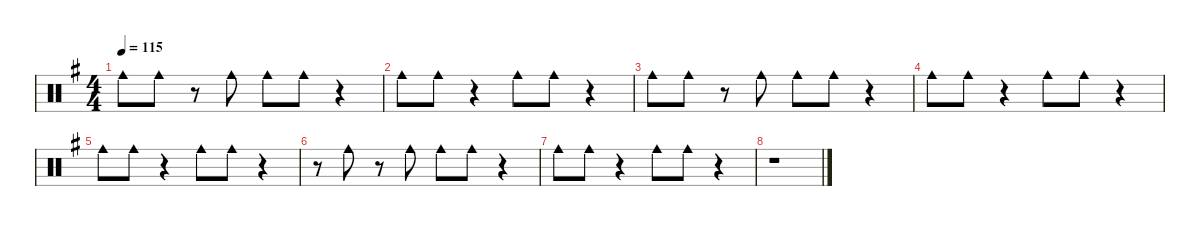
\defaultSystemsLayout 8
\hideDynamics
\bracketExtendMode nobrackets
\singleTrackTrackNamePolicy hidden
\multiTrackTrackNamePolicy hidden
\otherSystemsTrackNameOrientation horizontal
\track ("Cowbell" "drm.") {defaultSystemsLayout 8 instrument percussion}
\staff {score}
\articulation defaults
\ts (4 4)
\tempo 115
\clef neutral
\ks g "Cowbell medium (hit)"{acc forcenatural}.8{dy f beam Down} "Cowbell medium (hit)"{acc forcenatural}.8{beam Down}
r.8{beam Down} "Cowbell medium (hit)"{acc forcenatural}.8{beam Down} "Cowbell medium (hit)"{acc forcenatural}.8{beam Down} "Cowbell medium (hit)"{acc forcenatural}.8{beam Down} r.4{beam Down} |
"Cowbell medium (hit)"{acc forcenatural}.8{beam Down} "Cowbell medium (hit)"{acc forcenatural}.8{beam Down} r.4{beam Down} "Cowbell medium (hit)"{acc forcenatural}.8{beam Down} "Cowbell medium (hit)"{acc forcenatural}.8{beam Down} r.4{beam Down} |
"Cowbell medium (hit)"{acc forcenatural}.8{beam Down} "Cowbell medium (hit)"{acc forcenatural}.8{beam Down} r.8{beam Down} "Cowbell medium (hit)"{acc forcenatural}.8{beam Down} "Cowbell medium (hit)"{acc forcenatural}.8{beam Down} "Cowbell medium (hit)"{acc forcenatural}.8{beam Down} r.4{beam Down} |
"Cowbell medium (hit)"{acc forcenatural}.8{beam Down} "Cowbell medium (hit)"{acc forcenatural}.8{beam Down} r.4{beam Down} "Cowbell medium (hit)"{acc forcenatural}.8{beam Down} "Cowbell medium (hit)"{acc forcenatural}.8{beam Down} r.4{beam Down} |
"Cowbell medium (hit)"{acc forcenatural}.8{beam Down} "Cowbell medium (hit)"{acc forcenatural}.8{beam Down} r.4{beam Down} "Cowbell medium (hit)"{acc forcenatural}.8{beam Down} "Cowbell medium (hit)"{acc forcenatural}.8{beam Down} r.4{beam Down} |
r.8{beam Down} "Cowbell medium (hit)"{acc forcenatural}.8{beam Down} r.8{beam Down} "Cowbell medium (hit)"{acc forcenatural}.8{beam Down} "Cowbell medium (hit)"{acc forcenatural}.8{beam Down} "Cowbell medium (hit)"{acc forcenatural}.8{beam Down} r.4{beam Down} |
"Cowbell medium (hit)"{acc forcenatural}.8{beam Down} "Cowbell medium (hit)"{acc forcenatural}.8{beam Down} r.4{beam Down} "Cowbell medium (hit)"{acc forcenatural}.8{beam Down} "Cowbell medium (hit)"{acc forcenatural}.8{beam Down} r.4{beam Down} |
r.1{beam Down}
